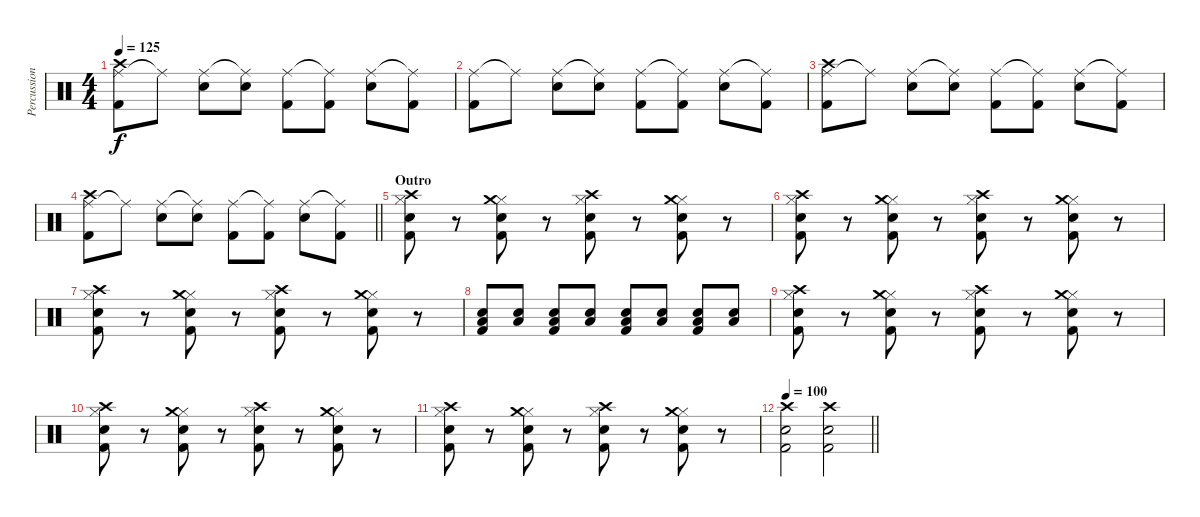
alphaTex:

\track ("Percussion" "Percussion") {instrument percussion}
\staff {score}
\articulation defaults
\ts (4 4)
\tempo 125
\clef neutral
\ks c
("Ride (middle)" "Crash high (hit)" "Kick (hit) 2").8{dy f} "Ride (middle)"{t}.8 ("Ride (middle)" "Snare (hit) 2").8 ("Ride (middle)"{t} "Snare (hit) 2").8 ("Ride (middle)" "Kick (hit) 2").8 ("Ride (middle)"{t} "Kick (hit) 2").8 ("Ride (middle)" "Snare (hit) 2").8 ("Ride (middle)"{t} "Kick (hit) 2").8 |
("Ride (middle)" "Kick (hit) 2").8 "Ride (middle)"{t}.8 ("Ride (middle)" "Snare (hit) 2").8 ("Ride (middle)"{t} "Snare (hit) 2").8 ("Ride (middle)" "Kick (hit) 2").8 ("Ride (middle)"{t} "Kick (hit) 2").8 ("Ride (middle)" "Snare (hit) 2").8 ("Ride (middle)"{t} "Kick (hit) 2").8 |
("Ride (middle)" "Crash high (hit)" "Kick (hit) 2").8 "Ride (middle)"{t}.8 ("Ride (middle)" "Snare (hit) 2").8 ("Ride (middle)"{t} "Snare (hit) 2").8 ("Ride (middle)" "Kick (hit) 2").8 ("Ride (middle)"{t} "Kick (hit) 2").8 ("Ride (middle)" "Snare (hit) 2").8 ("Ride (middle)"{t} "Kick (hit) 2").8 |
\barLineRight lightlight
("Ride (middle)" "Crash high (hit)" "Kick (hit) 2").8 "Ride (middle)"{t}.8 ("Ride (middle)" "Snare (hit) 2").8 ("Ride (middle)"{t} "Snare (hit) 2").8 ("Ride (middle)" "Kick (hit) 2").8 ("Ride (middle)"{t} "Kick (hit) 2").8 ("Ride (middle)" "Snare (hit) 2").8 ("Ride (middle)"{t} "Kick (hit) 2").8 |
\section ("" "Outro")
("Hi-Hat (closed)" "Crash high (hit)" "Snare (hit) 2" "Kick (hit) 2").8 r.8 ("Hi-Hat (closed)" "Crash medium (hit)" "Snare (hit) 2" "Kick (hit) 2").8 r.8 ("Hi-Hat (closed)" "Crash high (hit)" "Snare (hit) 2" "Kick (hit) 2").8 r.8 ("Hi-Hat (closed)" "Crash medium (hit)" "Snare (hit) 2" "Kick (hit) 2").8 r.8 |
("Hi-Hat (closed)" "Crash high (hit)" "Snare (hit) 2" "Kick (hit) 2").8 r.8 ("Hi-Hat (closed)" "Crash medium (hit)" "Snare (hit) 2" "Kick (hit) 2").8 r.8 ("Hi-Hat (closed)" "Crash high (hit)" "Snare (hit) 2" "Kick (hit) 2").8 r.8 ("Hi-Hat (closed)" "Crash medium (hit)" "Snare (hit) 2" "Kick (hit) 2").8 r.8 |
("Hi-Hat (closed)" "Crash high (hit)" "Snare (hit) 2" "Kick (hit) 2").8 r.8 ("Hi-Hat (closed)" "Crash medium (hit)" "Snare (hit) 2" "Kick (hit) 2").8 r.8 ("Hi-Hat (closed)" "Crash high (hit)" "Snare (hit) 2" "Kick (hit) 2").8 r.8 ("Hi-Hat (closed)" "Crash medium (hit)" "Snare (hit) 2" "Kick (hit) 2").8 r.8 |
("Snare (hit) 2" "Low Floor Tom (hit)" "Kick (hit) 2").8 ("Snare (hit) 2" "Low Floor Tom (hit)").8 ("Snare (hit) 2" "Low Floor Tom (hit)" "Kick (hit) 2").8 ("Snare (hit) 2" "Low Floor Tom (hit)").8 ("Snare (hit) 2" "Low Floor Tom (hit)" "Kick (hit) 2").8 ("Snare (hit) 2" "Low Floor Tom (hit)").8 ("Snare (hit) 2" "Low Floor Tom (hit)" "Kick (hit) 2").8 ("Snare (hit) 2" "Low Floor Tom (hit)").8 |
("Hi-Hat (closed)" "Crash high (hit)" "Snare (hit) 2" "Kick (hit) 2").8 r.8 ("Hi-Hat (closed)" "Crash medium (hit)" "Snare (hit) 2" "Kick (hit) 2").8 r.8 ("Hi-Hat (closed)" "Crash high (hit)" "Snare (hit) 2" "Kick (hit) 2").8 r.8 ("Hi-Hat (closed)" "Crash medium (hit)" "Snare (hit) 2" "Kick (hit) 2").8 r.8 |
("Hi-Hat (closed)" "Crash high (hit)" "Snare (hit) 2" "Kick (hit) 2").8 r.8 ("Hi-Hat (closed)" "Crash medium (hit)" "Snare (hit) 2" "Kick (hit) 2").8 r.8 ("Hi-Hat (closed)" "Crash high (hit)" "Snare (hit) 2" "Kick (hit) 2").8 r.8 ("Hi-Hat (closed)" "Crash medium (hit)" "Snare (hit) 2" "Kick (hit) 2").8 r.8 |
("Hi-Hat (closed)" "Crash high (hit)" "Snare (hit) 2" "Kick (hit) 2").8 r.8 ("Hi-Hat (closed)" "Crash medium (hit)" "Snare (hit) 2" "Kick (hit) 2").8 r.8 ("Hi-Hat (closed)" "Crash high (hit)" "Snare (hit) 2" "Kick (hit) 2").8 r.8 ("Hi-Hat (closed)" "Crash medium (hit)" "Snare (hit) 2" "Kick (hit) 2").8 r.8 |
\tempo 100
\barLineRight lightlight
("Crash high (hit)" "Snare (hit) 2" "Kick (hit) 2").2 ("Crash high (hit)" "Snare (hit) 2" "Kick (hit) 2").2
